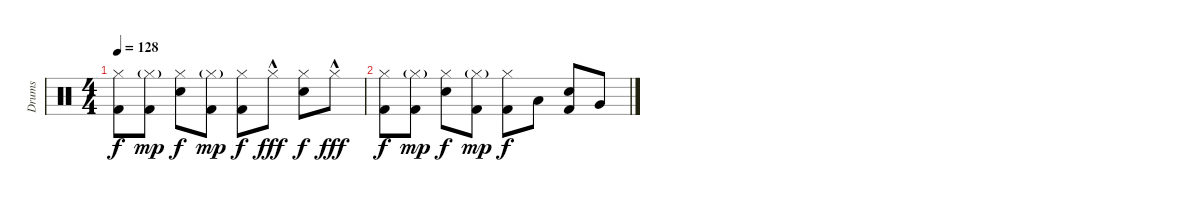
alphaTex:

\track ("Drums" "Drums") {instrument percussion}
\staff {score}
\articulation defaults
\ts (4 4)
\tempo 128
\clef neutral
\ks c
("Hi-Hat (closed)" "Kick (hit) 2").8{dy f} ("Hi-Hat (closed)"{g} "Kick (hit) 2").8{dy mp} ("Hi-Hat (closed)" "Snare (hit) 2").8{dy f} ("Hi-Hat (closed)"{g} "Kick (hit) 2").8{dy mp} ("Hi-Hat (closed)" "Kick (hit) 2").8{dy f} "Hi-Hat (closed)"{hac}.8{dy fff} ("Hi-Hat (closed)" "Snare (hit) 2").8{dy f} "Hi-Hat (closed)"{hac}.8{dy fff} |
("Hi-Hat (closed)" "Kick (hit) 2").8{dy f} ("Hi-Hat (closed)"{g} "Kick (hit) 2").8{dy mp} ("Hi-Hat (closed)" "Snare (hit) 2").8{dy f} ("Hi-Hat (closed)"{g} "Kick (hit) 2").8{dy mp} ("Hi-Hat (closed)" "Kick (hit) 2").8{dy f} "Low Tom (hit)".8 ("Snare (hit) 2" "Kick (hit) 2").8 "Very Low Tom (hit)".8
